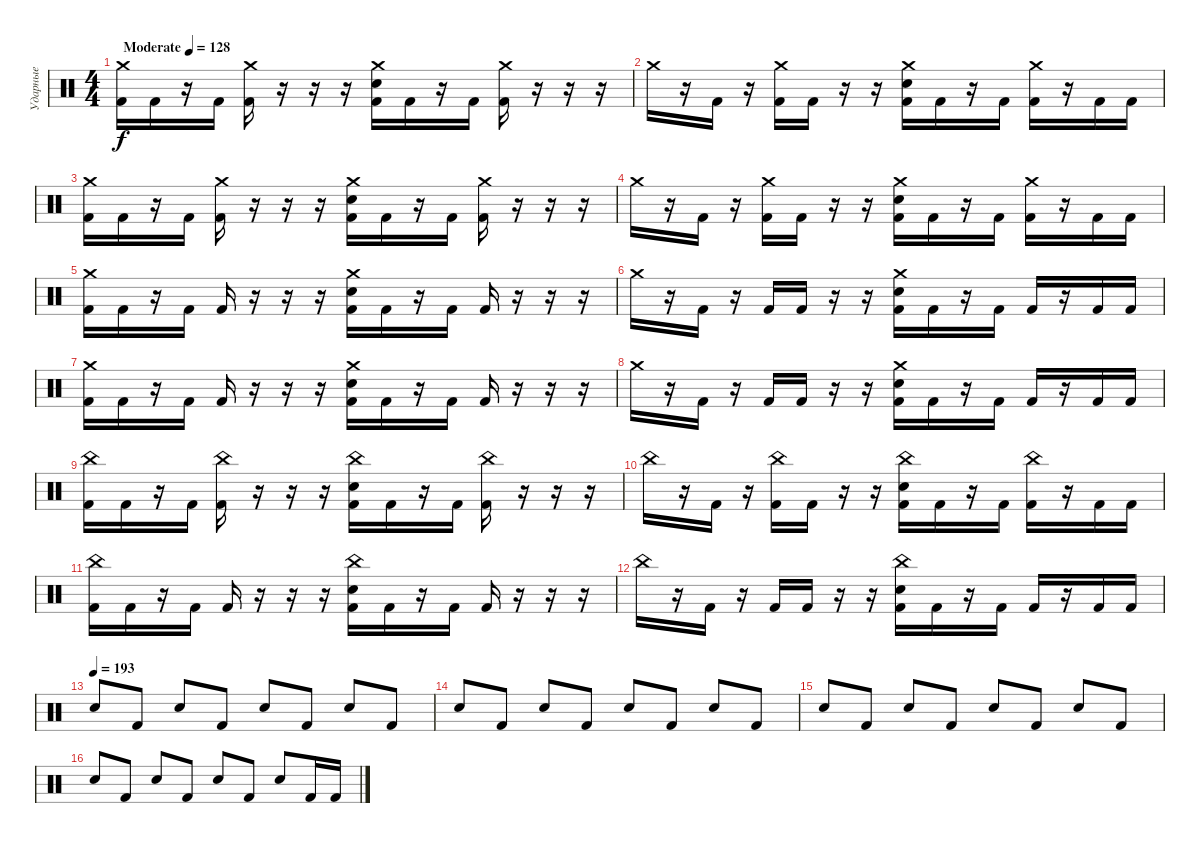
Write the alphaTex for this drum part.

\track ("Ударные" "Ударные") {instrument percussion}
\staff {score}
\articulation defaults
\ts (4 4)
\tempo (128 "Moderate")
\clef neutral
\ks c
("Crash medium (hit)" "Kick (hit) 2").16{dy f} "Kick (hit) 2".16 r.16 "Kick (hit) 2".16 ("Crash medium (hit)" "Kick (hit) 2").16 r.16 r.16 r.16 ("Crash medium (hit)" "Electric Snare (hit)" "Kick (hit) 2").16 "Kick (hit) 2".16 r.16 "Kick (hit) 2".16 ("Crash medium (hit)" "Kick (hit) 2").16 r.16 r.16 r.16 |
"Crash medium (hit)".16 r.16 "Kick (hit) 2".16 r.16 ("Crash medium (hit)" "Kick (hit) 2").16 "Kick (hit) 2".16 r.16 r.16 ("Crash medium (hit)" "Electric Snare (hit)" "Kick (hit) 2").16 "Kick (hit) 2".16 r.16 "Kick (hit) 2".16 ("Crash medium (hit)" "Kick (hit) 2").16 r.16 "Kick (hit) 2".16 "Kick (hit) 2".16 |
("Crash medium (hit)" "Kick (hit) 2").16 "Kick (hit) 2".16 r.16 "Kick (hit) 2".16 ("Crash medium (hit)" "Kick (hit) 2").16 r.16 r.16 r.16 ("Crash medium (hit)" "Electric Snare (hit)" "Kick (hit) 2").16 "Kick (hit) 2".16 r.16 "Kick (hit) 2".16 ("Crash medium (hit)" "Kick (hit) 2").16 r.16 r.16 r.16 |
"Crash medium (hit)".16 r.16 "Kick (hit) 2".16 r.16 ("Crash medium (hit)" "Kick (hit) 2").16 "Kick (hit) 2".16 r.16 r.16 ("Crash medium (hit)" "Electric Snare (hit)" "Kick (hit) 2").16 "Kick (hit) 2".16 r.16 "Kick (hit) 2".16 ("Crash medium (hit)" "Kick (hit) 2").16 r.16 "Kick (hit) 2".16 "Kick (hit) 2".16 |
("Crash medium (hit)" "Kick (hit) 2").16 "Kick (hit) 2".16 r.16 "Kick (hit) 2".16 "Kick (hit) 2".16 r.16 r.16 r.16 ("Crash medium (hit)" "Electric Snare (hit)" "Kick (hit) 2").16 "Kick (hit) 2".16 r.16 "Kick (hit) 2".16 "Kick (hit) 2".16 r.16 r.16 r.16 |
"Crash medium (hit)".16 r.16 "Kick (hit) 2".16 r.16 "Kick (hit) 2".16 "Kick (hit) 2".16 r.16 r.16 ("Crash medium (hit)" "Electric Snare (hit)" "Kick (hit) 2").16 "Kick (hit) 2".16 r.16 "Kick (hit) 2".16 "Kick (hit) 2".16 r.16 "Kick (hit) 2".16 "Kick (hit) 2".16 |
("Crash medium (hit)" "Kick (hit) 2").16 "Kick (hit) 2".16 r.16 "Kick (hit) 2".16 "Kick (hit) 2".16 r.16 r.16 r.16 ("Crash medium (hit)" "Electric Snare (hit)" "Kick (hit) 2").16 "Kick (hit) 2".16 r.16 "Kick (hit) 2".16 "Kick (hit) 2".16 r.16 r.16 r.16 |
"Crash medium (hit)".16 r.16 "Kick (hit) 2".16 r.16 "Kick (hit) 2".16 "Kick (hit) 2".16 r.16 r.16 ("Crash medium (hit)" "Electric Snare (hit)" "Kick (hit) 2").16 "Kick (hit) 2".16 r.16 "Kick (hit) 2".16 "Kick (hit) 2".16 r.16 "Kick (hit) 2".16 "Kick (hit) 2".16 |
("China (hit)" "Kick (hit) 2").16 "Kick (hit) 2".16 r.16 "Kick (hit) 2".16 ("China (hit)" "Kick (hit) 2").16 r.16 r.16 r.16 ("China (hit)" "Electric Snare (hit)" "Kick (hit) 2").16 "Kick (hit) 2".16 r.16 "Kick (hit) 2".16 ("China (hit)" "Kick (hit) 2").16 r.16 r.16 r.16 |
"China (hit)".16 r.16 "Kick (hit) 2".16 r.16 ("China (hit)" "Kick (hit) 2").16 "Kick (hit) 2".16 r.16 r.16 ("China (hit)" "Electric Snare (hit)" "Kick (hit) 2").16 "Kick (hit) 2".16 r.16 "Kick (hit) 2".16 ("China (hit)" "Kick (hit) 2").16 r.16 "Kick (hit) 2".16 "Kick (hit) 2".16 |
("China (hit)" "Kick (hit) 2").16 "Kick (hit) 2".16 r.16 "Kick (hit) 2".16 "Kick (hit) 2".16 r.16 r.16 r.16 ("China (hit)" "Electric Snare (hit)" "Kick (hit) 2").16 "Kick (hit) 2".16 r.16 "Kick (hit) 2".16 "Kick (hit) 2".16 r.16 r.16 r.16 |
"China (hit)".16 r.16 "Kick (hit) 2".16 r.16 "Kick (hit) 2".16 "Kick (hit) 2".16 r.16 r.16 ("China (hit)" "Electric Snare (hit)" "Kick (hit) 2").16 "Kick (hit) 2".16 r.16 "Kick (hit) 2".16 "Kick (hit) 2".16 r.16 "Kick (hit) 2".16 "Kick (hit) 2".16 |
\tempo (193)
"Electric Snare (hit)".8 "Kick (hit) 2".8 "Electric Snare (hit)".8 "Kick (hit) 2".8 "Electric Snare (hit)".8 "Kick (hit) 2".8 "Electric Snare (hit)".8 "Kick (hit) 2".8 |
"Electric Snare (hit)".8 "Kick (hit) 2".8 "Electric Snare (hit)".8 "Kick (hit) 2".8 "Electric Snare (hit)".8 "Kick (hit) 2".8 "Electric Snare (hit)".8 "Kick (hit) 2".8 |
"Electric Snare (hit)".8 "Kick (hit) 2".8 "Electric Snare (hit)".8 "Kick (hit) 2".8 "Electric Snare (hit)".8 "Kick (hit) 2".8 "Electric Snare (hit)".8 "Kick (hit) 2".8 |
"Electric Snare (hit)".8 "Kick (hit) 2".8 "Electric Snare (hit)".8 "Kick (hit) 2".8 "Electric Snare (hit)".8 "Kick (hit) 2".8 "Electric Snare (hit)".8 "Kick (hit) 2".16 "Kick (hit) 2".16
